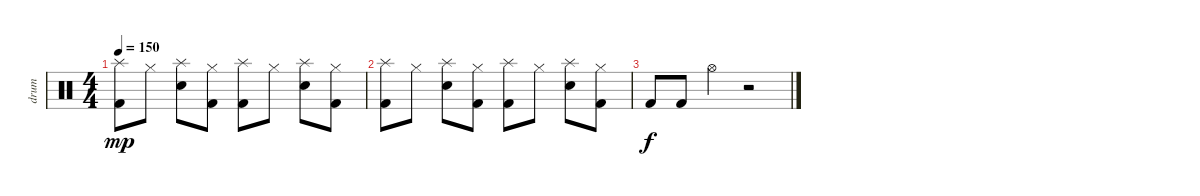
\track ("drum" "drum") {instrument percussion}
\staff {score}
\articulation defaults
\ts (4 4)
\tempo 150
\clef neutral
\ks c
("Splash (hit)" "Kick (hit) 2").8{dy mp} "Hi-Hat (closed)".8 ("Splash (hit)" "Electric Snare (hit)").8 ("Hi-Hat (closed)" "Kick (hit) 2").8 ("Splash (hit)" "Kick (hit) 2").8 "Hi-Hat (closed)".8 ("Splash (hit)" "Electric Snare (hit)").8 ("Hi-Hat (closed)" "Kick (hit) 2").8 |
("Splash (hit)" "Kick (hit) 2").8 "Hi-Hat (closed)".8 ("Splash (hit)" "Electric Snare (hit)").8 ("Hi-Hat (closed)" "Kick (hit) 2").8 ("Splash (hit)" "Kick (hit) 2").8 "Hi-Hat (closed)".8 ("Splash (hit)" "Electric Snare (hit)").8 ("Hi-Hat (closed)" "Kick (hit) 2").8 |
"Kick (hit) 2".8{dy f} "Kick (hit) 2".8 "Hi-Hat (open)".4 r.2
